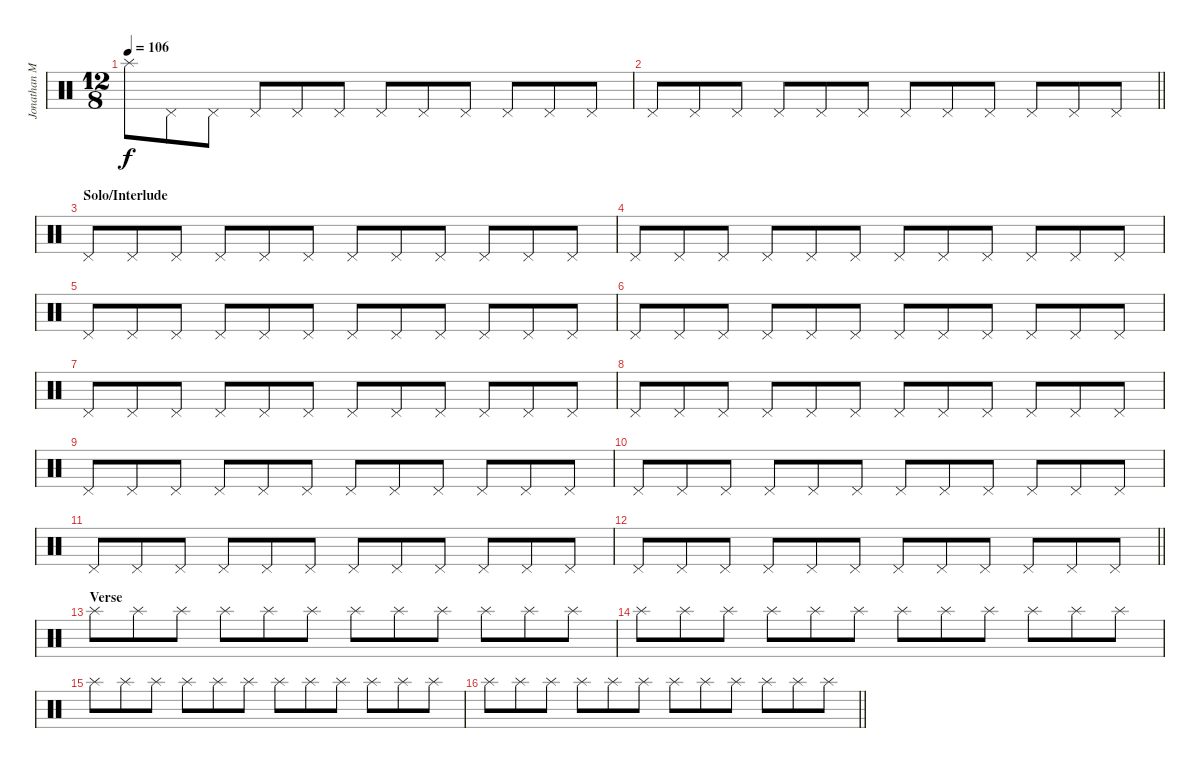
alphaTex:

\track ("Jonathan Mover (Studio Drummer)" "Jonathan M") {instrument percussion}
\staff {score}
\articulation defaults
\ts (12 8)
\tempo 106
\clef neutral
\ks c "Splash (hit)".8{dy f} "Pedal Hi-Hat (hit)".8 "Pedal Hi-Hat (hit)".8 "Pedal Hi-Hat (hit)".8 "Pedal Hi-Hat (hit)".8 "Pedal Hi-Hat (hit)".8 "Pedal Hi-Hat (hit)".8 "Pedal Hi-Hat (hit)".8 "Pedal Hi-Hat (hit)".8 "Pedal Hi-Hat (hit)".8 "Pedal Hi-Hat (hit)".8 "Pedal Hi-Hat (hit)".8
|
\barLineRight lightlight "Pedal Hi-Hat (hit)".8 "Pedal Hi-Hat (hit)".8 "Pedal Hi-Hat (hit)".8 "Pedal Hi-Hat (hit)".8 "Pedal Hi-Hat (hit)".8 "Pedal Hi-Hat (hit)".8 "Pedal Hi-Hat (hit)".8 "Pedal Hi-Hat (hit)".8 "Pedal Hi-Hat (hit)".8 "Pedal Hi-Hat (hit)".8 "Pedal Hi-Hat (hit)".8 "Pedal Hi-Hat (hit)".8
|
\section ("" "Solo/Interlude")
"Pedal Hi-Hat (hit)".8 "Pedal Hi-Hat (hit)".8 "Pedal Hi-Hat (hit)".8 "Pedal Hi-Hat (hit)".8 "Pedal Hi-Hat (hit)".8 "Pedal Hi-Hat (hit)".8 "Pedal Hi-Hat (hit)".8 "Pedal Hi-Hat (hit)".8 "Pedal Hi-Hat (hit)".8 "Pedal Hi-Hat (hit)".8 "Pedal Hi-Hat (hit)".8 "Pedal Hi-Hat (hit)".8 |
"Pedal Hi-Hat (hit)".8 "Pedal Hi-Hat (hit)".8 "Pedal Hi-Hat (hit)".8 "Pedal Hi-Hat (hit)".8 "Pedal Hi-Hat (hit)".8 "Pedal Hi-Hat (hit)".8 "Pedal Hi-Hat (hit)".8 "Pedal Hi-Hat (hit)".8 "Pedal Hi-Hat (hit)".8 "Pedal Hi-Hat (hit)".8 "Pedal Hi-Hat (hit)".8 "Pedal Hi-Hat (hit)".8 |
"Pedal Hi-Hat (hit)".8 "Pedal Hi-Hat (hit)".8 "Pedal Hi-Hat (hit)".8 "Pedal Hi-Hat (hit)".8 "Pedal Hi-Hat (hit)".8 "Pedal Hi-Hat (hit)".8 "Pedal Hi-Hat (hit)".8 "Pedal Hi-Hat (hit)".8 "Pedal Hi-Hat (hit)".8 "Pedal Hi-Hat (hit)".8 "Pedal Hi-Hat (hit)".8 "Pedal Hi-Hat (hit)".8 |
"Pedal Hi-Hat (hit)".8 "Pedal Hi-Hat (hit)".8 "Pedal Hi-Hat (hit)".8 "Pedal Hi-Hat (hit)".8 "Pedal Hi-Hat (hit)".8 "Pedal Hi-Hat (hit)".8 "Pedal Hi-Hat (hit)".8 "Pedal Hi-Hat (hit)".8 "Pedal Hi-Hat (hit)".8 "Pedal Hi-Hat (hit)".8 "Pedal Hi-Hat (hit)".8 "Pedal Hi-Hat (hit)".8 |
"Pedal Hi-Hat (hit)".8 "Pedal Hi-Hat (hit)".8 "Pedal Hi-Hat (hit)".8 "Pedal Hi-Hat (hit)".8 "Pedal Hi-Hat (hit)".8 "Pedal Hi-Hat (hit)".8 "Pedal Hi-Hat (hit)".8 "Pedal Hi-Hat (hit)".8 "Pedal Hi-Hat (hit)".8 "Pedal Hi-Hat (hit)".8 "Pedal Hi-Hat (hit)".8 "Pedal Hi-Hat (hit)".8 |
"Pedal Hi-Hat (hit)".8 "Pedal Hi-Hat (hit)".8 "Pedal Hi-Hat (hit)".8 "Pedal Hi-Hat (hit)".8 "Pedal Hi-Hat (hit)".8 "Pedal Hi-Hat (hit)".8 "Pedal Hi-Hat (hit)".8 "Pedal Hi-Hat (hit)".8 "Pedal Hi-Hat (hit)".8 "Pedal Hi-Hat (hit)".8 "Pedal Hi-Hat (hit)".8 "Pedal Hi-Hat (hit)".8 |
"Pedal Hi-Hat (hit)".8 "Pedal Hi-Hat (hit)".8 "Pedal Hi-Hat (hit)".8 "Pedal Hi-Hat (hit)".8 "Pedal Hi-Hat (hit)".8 "Pedal Hi-Hat (hit)".8 "Pedal Hi-Hat (hit)".8 "Pedal Hi-Hat (hit)".8 "Pedal Hi-Hat (hit)".8 "Pedal Hi-Hat (hit)".8 "Pedal Hi-Hat (hit)".8 "Pedal Hi-Hat (hit)".8 |
"Pedal Hi-Hat (hit)".8 "Pedal Hi-Hat (hit)".8 "Pedal Hi-Hat (hit)".8 "Pedal Hi-Hat (hit)".8 "Pedal Hi-Hat (hit)".8 "Pedal Hi-Hat (hit)".8 "Pedal Hi-Hat (hit)".8 "Pedal Hi-Hat (hit)".8 "Pedal Hi-Hat (hit)".8 "Pedal Hi-Hat (hit)".8 "Pedal Hi-Hat (hit)".8 "Pedal Hi-Hat (hit)".8 |
"Pedal Hi-Hat (hit)".8 "Pedal Hi-Hat (hit)".8 "Pedal Hi-Hat (hit)".8 "Pedal Hi-Hat (hit)".8 "Pedal Hi-Hat (hit)".8 "Pedal Hi-Hat (hit)".8 "Pedal Hi-Hat (hit)".8 "Pedal Hi-Hat (hit)".8 "Pedal Hi-Hat (hit)".8 "Pedal Hi-Hat (hit)".8 "Pedal Hi-Hat (hit)".8 "Pedal Hi-Hat (hit)".8 |
\barLineRight lightlight "Pedal Hi-Hat (hit)".8 "Pedal Hi-Hat (hit)".8 "Pedal Hi-Hat (hit)".8 "Pedal Hi-Hat (hit)".8 "Pedal Hi-Hat (hit)".8 "Pedal Hi-Hat (hit)".8 "Pedal Hi-Hat (hit)".8 "Pedal Hi-Hat (hit)".8 "Pedal Hi-Hat (hit)".8 "Pedal Hi-Hat (hit)".8 "Pedal Hi-Hat (hit)".8 "Pedal Hi-Hat (hit)".8
|
\section ("" "Verse")
"Splash (hit)".8 "Splash (hit)".8 "Splash (hit)".8 "Splash (hit)".8 "Splash (hit)".8 "Splash (hit)".8 "Splash (hit)".8 "Splash (hit)".8 "Splash (hit)".8 "Splash (hit)".8 "Splash (hit)".8 "Splash (hit)".8 |
"Splash (hit)".8 "Splash (hit)".8 "Splash (hit)".8 "Splash (hit)".8 "Splash (hit)".8 "Splash (hit)".8 "Splash (hit)".8 "Splash (hit)".8 "Splash (hit)".8 "Splash (hit)".8 "Splash (hit)".8 "Splash (hit)".8 |
"Splash (hit)".8 "Splash (hit)".8 "Splash (hit)".8 "Splash (hit)".8 "Splash (hit)".8 "Splash (hit)".8 "Splash (hit)".8 "Splash (hit)".8 "Splash (hit)".8 "Splash (hit)".8 "Splash (hit)".8 "Splash (hit)".8 |
\barLineRight lightlight "Splash (hit)".8 "Splash (hit)".8 "Splash (hit)".8 "Splash (hit)".8 "Splash (hit)".8 "Splash (hit)".8 "Splash (hit)".8 "Splash (hit)".8 "Splash (hit)".8 "Splash (hit)".8 "Splash (hit)".8 "Splash (hit)".8
